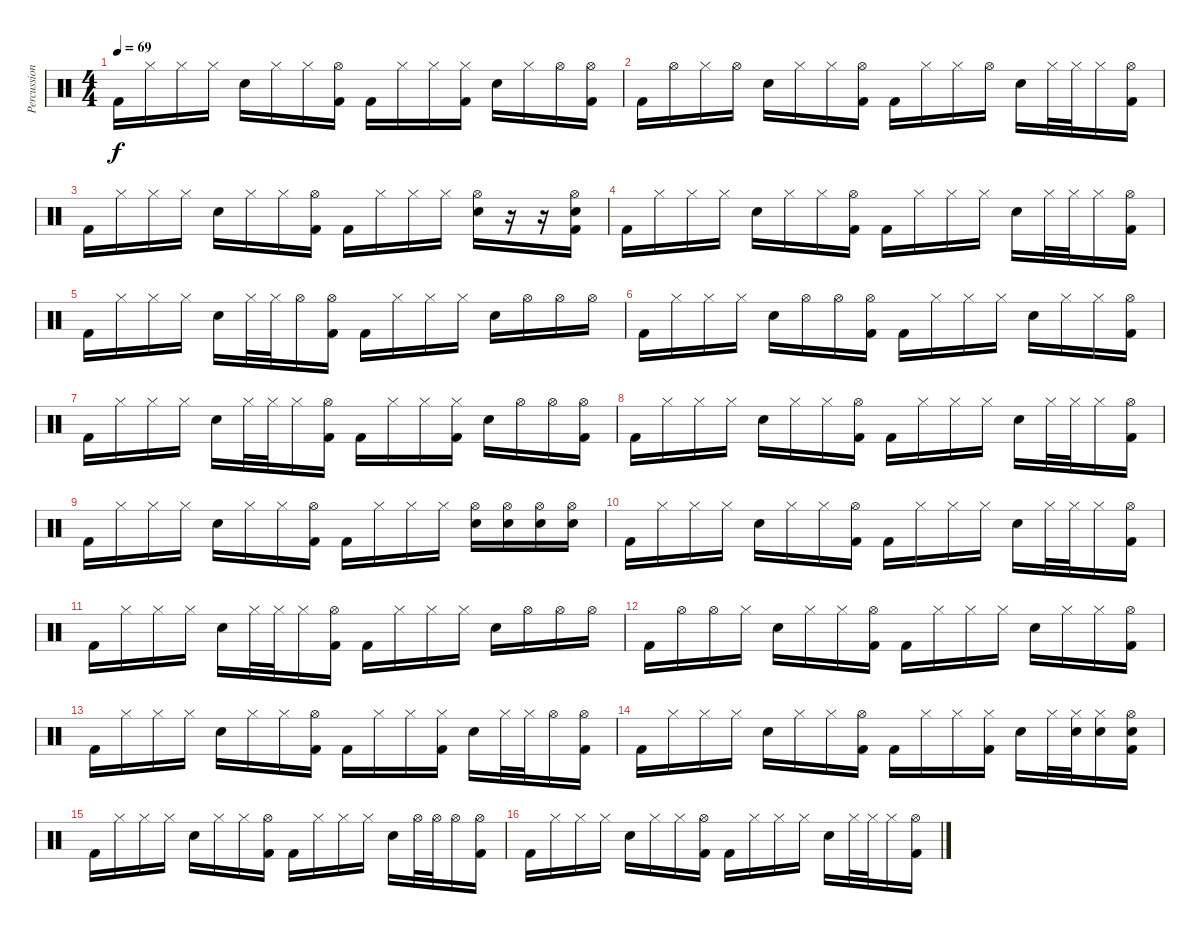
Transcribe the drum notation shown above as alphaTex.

\track ("Percussions" "Percussion") {instrument percussion}
\staff {score}
\articulation defaults
\ts (4 4)
\tempo 69
\clef neutral
\ks c "Kick (hit) 2".16{dy f} "Hi-Hat (closed)".16 "Hi-Hat (closed)".16 "Hi-Hat (closed)".16 "Electric Snare (hit)".16 "Hi-Hat (closed)".16 "Hi-Hat (closed)".16
("Hi-Hat (open)" "Kick (hit) 2").16 "Kick (hit) 2".16 "Hi-Hat (closed)".16 "Hi-Hat (closed)".16 ("Hi-Hat (closed)" "Kick (hit) 2").16 "Electric Snare (hit)".16 "Hi-Hat (closed)".16 "Hi-Hat (open)".16 ("Hi-Hat (open)" "Kick (hit) 2").16 |
"Kick (hit) 2".16 "Hi-Hat (open)".16 "Hi-Hat (closed)".16 "Hi-Hat (open)".16 "Electric Snare (hit)".16 "Hi-Hat (closed)".16 "Hi-Hat (closed)".16 ("Hi-Hat (open)" "Kick (hit) 2").16 "Kick (hit) 2".16 "Hi-Hat (closed)".16 "Hi-Hat (closed)".16 "Hi-Hat (open)".16 "Electric Snare (hit)".16 "Hi-Hat (closed)".32 "Hi-Hat (closed)".32 "Hi-Hat (closed)".16 ("Hi-Hat (open)" "Kick (hit) 2").16 |
"Kick (hit) 2".16 "Hi-Hat (closed)".16 "Hi-Hat (closed)".16 "Hi-Hat (closed)".16 "Electric Snare (hit)".16 "Hi-Hat (closed)".16 "Hi-Hat (closed)".16 ("Hi-Hat (open)" "Kick (hit) 2").16 "Kick (hit) 2".16 "Hi-Hat (closed)".16 "Hi-Hat (closed)".16 "Hi-Hat (closed)".16 ("Hi-Hat (open)" "Electric Snare (hit)").16 r.16 r.16 ("Hi-Hat (open)" "Electric Snare (hit)" "Kick (hit) 2").16 |
"Kick (hit) 2".16 "Hi-Hat (closed)".16 "Hi-Hat (closed)".16 "Hi-Hat (closed)".16 "Electric Snare (hit)".16 "Hi-Hat (closed)".16 "Hi-Hat (closed)".16 ("Hi-Hat (open)" "Kick (hit) 2").16 "Kick (hit) 2".16 "Hi-Hat (closed)".16 "Hi-Hat (closed)".16 "Hi-Hat (closed)".16 "Electric Snare (hit)".16 "Hi-Hat (closed)".32 "Hi-Hat (closed)".32 "Hi-Hat (closed)".16 ("Hi-Hat (open)" "Kick (hit) 2").16 |
"Kick (hit) 2".16 "Hi-Hat (closed)".16 "Hi-Hat (closed)".16 "Hi-Hat (closed)".16 "Electric Snare (hit)".16 "Hi-Hat (closed)".32 "Hi-Hat (closed)".32 "Hi-Hat (open)".16 ("Hi-Hat (open)" "Kick (hit) 2").16 "Kick (hit) 2".16 "Hi-Hat (closed)".16 "Hi-Hat (closed)".16 "Hi-Hat (closed)".16 "Electric Snare (hit)".16 "Hi-Hat (open)".16 "Hi-Hat (open)".16 "Hi-Hat (open)".16 |
"Kick (hit) 2".16 "Hi-Hat (closed)".16 "Hi-Hat (closed)".16 "Hi-Hat (closed)".16 "Electric Snare (hit)".16 "Hi-Hat (open)".16 "Hi-Hat (open)".16 ("Hi-Hat (open)" "Kick (hit) 2").16 "Kick (hit) 2".16 "Hi-Hat (closed)".16 "Hi-Hat (closed)".16 "Hi-Hat (closed)".16 "Electric Snare (hit)".16 "Hi-Hat (closed)".16 "Hi-Hat (closed)".16 ("Hi-Hat (open)" "Kick (hit) 2").16 |
"Kick (hit) 2".16 "Hi-Hat (closed)".16 "Hi-Hat (closed)".16 "Hi-Hat (closed)".16 "Electric Snare (hit)".16 "Hi-Hat (closed)".32 "Hi-Hat (closed)".32 "Hi-Hat (closed)".16 ("Hi-Hat (open)" "Kick (hit) 2").16 "Kick (hit) 2".16 "Hi-Hat (closed)".16 "Hi-Hat (closed)".16 ("Hi-Hat (closed)" "Kick (hit) 2").16 "Electric Snare (hit)".16 "Hi-Hat (open)".16 "Hi-Hat (open)".16 ("Hi-Hat (open)" "Kick (hit) 2").16 |
"Kick (hit) 2".16 "Hi-Hat (closed)".16 "Hi-Hat (closed)".16 "Hi-Hat (closed)".16 "Electric Snare (hit)".16 "Hi-Hat (closed)".16 "Hi-Hat (closed)".16 ("Hi-Hat (open)" "Kick (hit) 2").16 "Kick (hit) 2".16 "Hi-Hat (closed)".16 "Hi-Hat (closed)".16 "Hi-Hat (closed)".16 "Electric Snare (hit)".16 "Hi-Hat (closed)".32 "Hi-Hat (closed)".32 "Hi-Hat (closed)".16 ("Hi-Hat (open)" "Kick (hit) 2").16 |
"Kick (hit) 2".16 "Hi-Hat (closed)".16 "Hi-Hat (closed)".16 "Hi-Hat (closed)".16 "Electric Snare (hit)".16 "Hi-Hat (closed)".16 "Hi-Hat (closed)".16 ("Hi-Hat (open)" "Kick (hit) 2").16 "Kick (hit) 2".16 "Hi-Hat (closed)".16 "Hi-Hat (closed)".16 "Hi-Hat (closed)".16 ("Hi-Hat (open)" "Electric Snare (hit)").16 ("Hi-Hat (open)" "Electric Snare (hit)").16 ("Hi-Hat (open)" "Electric Snare (hit)").16 ("Hi-Hat (open)" "Electric Snare (hit)").16 |
"Kick (hit) 2".16 "Hi-Hat (closed)".16 "Hi-Hat (closed)".16 "Hi-Hat (closed)".16 "Electric Snare (hit)".16 "Hi-Hat (closed)".16 "Hi-Hat (closed)".16 ("Hi-Hat (open)" "Kick (hit) 2").16 "Kick (hit) 2".16 "Hi-Hat (closed)".16 "Hi-Hat (closed)".16 "Hi-Hat (closed)".16 "Electric Snare (hit)".16 "Hi-Hat (closed)".32 "Hi-Hat (closed)".32 "Hi-Hat (closed)".16 ("Hi-Hat (open)" "Kick (hit) 2").16 |
"Kick (hit) 2".16 "Hi-Hat (closed)".16 "Hi-Hat (closed)".16 "Hi-Hat (closed)".16 "Electric Snare (hit)".16 "Hi-Hat (closed)".32 "Hi-Hat (closed)".32 "Hi-Hat (closed)".16 ("Hi-Hat (open)" "Kick (hit) 2").16 "Kick (hit) 2".16 "Hi-Hat (closed)".16 "Hi-Hat (closed)".16 "Hi-Hat (closed)".16 "Electric Snare (hit)".16 "Hi-Hat (open)".16 "Hi-Hat (open)".16 "Hi-Hat (open)".16 |
"Kick (hit) 2".16 "Hi-Hat (open)".16 "Hi-Hat (open)".16 "Hi-Hat (closed)".16 "Electric Snare (hit)".16 "Hi-Hat (closed)".16 "Hi-Hat (closed)".16 ("Hi-Hat (open)" "Kick (hit) 2").16 "Kick (hit) 2".16 "Hi-Hat (closed)".16 "Hi-Hat (closed)".16 "Hi-Hat (closed)".16 "Electric Snare (hit)".16 "Hi-Hat (closed)".16 "Hi-Hat (closed)".16 ("Hi-Hat (open)" "Kick (hit) 2").16 |
"Kick (hit) 2".16 "Hi-Hat (closed)".16 "Hi-Hat (closed)".16 "Hi-Hat (closed)".16 "Electric Snare (hit)".16 "Hi-Hat (closed)".16 "Hi-Hat (closed)".16 ("Hi-Hat (open)" "Kick (hit) 2").16 "Kick (hit) 2".16 "Hi-Hat (closed)".16 "Hi-Hat (closed)".16 ("Hi-Hat (closed)" "Kick (hit) 2").16 "Electric Snare (hit)".16 "Hi-Hat (closed)".32 "Hi-Hat (closed)".32 "Hi-Hat (open)".16 ("Hi-Hat (open)" "Kick (hit) 2").16 |
"Kick (hit) 2".16 "Hi-Hat (closed)".16 "Hi-Hat (closed)".16 "Hi-Hat (closed)".16 "Electric Snare (hit)".16 "Hi-Hat (closed)".16 "Hi-Hat (closed)".16 ("Hi-Hat (open)" "Kick (hit) 2").16 "Kick (hit) 2".16 "Hi-Hat (closed)".16 "Hi-Hat (closed)".16 ("Hi-Hat (closed)" "Kick (hit) 2").16 "Electric Snare (hit)".16 "Hi-Hat (closed)".32 ("Hi-Hat (closed)" "Electric Snare (hit)").32 ("Hi-Hat (closed)" "Electric Snare (hit)").16 ("Hi-Hat (open)" "Electric Snare (hit)" "Kick (hit) 2").16 |
"Kick (hit) 2".16 "Hi-Hat (closed)".16 "Hi-Hat (closed)".16 "Hi-Hat (closed)".16 "Electric Snare (hit)".16 "Hi-Hat (closed)".16 "Hi-Hat (closed)".16 ("Hi-Hat (open)" "Kick (hit) 2").16 "Kick (hit) 2".16 "Hi-Hat (closed)".16 "Hi-Hat (closed)".16 "Hi-Hat (closed)".16 "Electric Snare (hit)".16 "Hi-Hat (open)".32 "Hi-Hat (open)".32 "Hi-Hat (open)".16 ("Hi-Hat (open)" "Kick (hit) 2").16 |
"Kick (hit) 2".16 "Hi-Hat (closed)".16 "Hi-Hat (closed)".16 "Hi-Hat (closed)".16 "Electric Snare (hit)".16 "Hi-Hat (closed)".16 "Hi-Hat (closed)".16 ("Hi-Hat (open)" "Kick (hit) 2").16 "Kick (hit) 2".16 "Hi-Hat (closed)".16 "Hi-Hat (closed)".16 "Hi-Hat (closed)".16 "Electric Snare (hit)".16 "Hi-Hat (closed)".32 "Hi-Hat (closed)".32 "Hi-Hat (closed)".16 ("Hi-Hat (open)" "Kick (hit) 2").16
